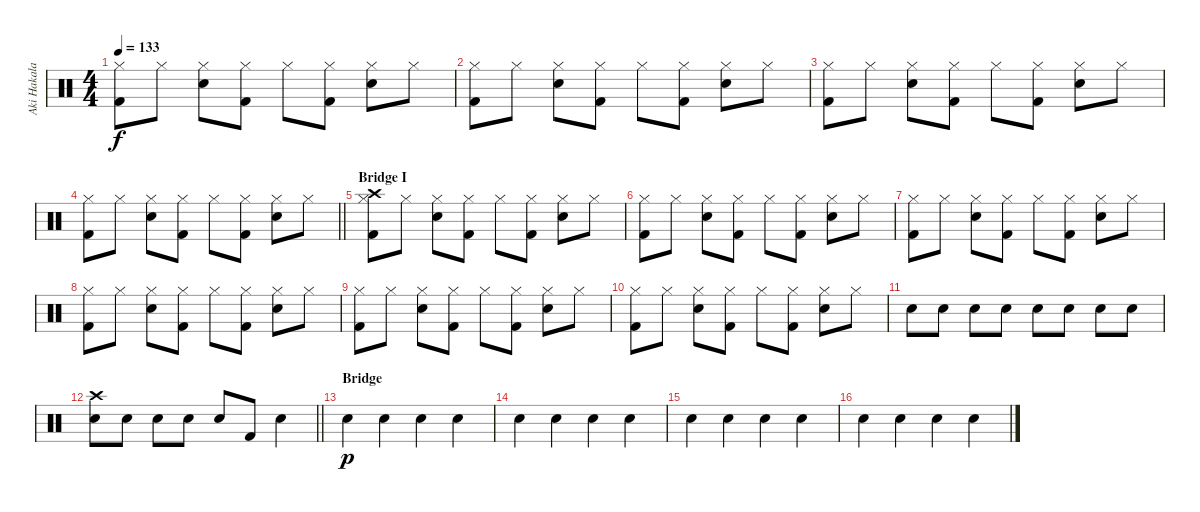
\track ("Aki Hakala - Drums" "Aki Hakala") {instrument percussion}
\staff {score}
\articulation defaults
\ts (4 4)
\tempo 133
\clef neutral
\ks c
("Hi-Hat (closed)" "Kick (hit) 2").8{dy f} "Hi-Hat (closed)".8 ("Snare (hit) 2" "Hi-Hat (closed)").8 ("Hi-Hat (closed)" "Kick (hit) 2").8 "Hi-Hat (closed)".8 ("Hi-Hat (closed)" "Kick (hit) 2").8 ("Snare (hit) 2" "Hi-Hat (closed)").8 "Hi-Hat (closed)".8 |
("Hi-Hat (closed)" "Kick (hit) 2").8 "Hi-Hat (closed)".8 ("Snare (hit) 2" "Hi-Hat (closed)").8 ("Hi-Hat (closed)" "Kick (hit) 2").8 "Hi-Hat (closed)".8 ("Hi-Hat (closed)" "Kick (hit) 2").8 ("Snare (hit) 2" "Hi-Hat (closed)").8 "Hi-Hat (closed)".8 |
("Hi-Hat (closed)" "Kick (hit) 2").8 "Hi-Hat (closed)".8 ("Snare (hit) 2" "Hi-Hat (closed)").8 ("Hi-Hat (closed)" "Kick (hit) 2").8 "Hi-Hat (closed)".8 ("Hi-Hat (closed)" "Kick (hit) 2").8 ("Snare (hit) 2" "Hi-Hat (closed)").8 "Hi-Hat (closed)".8 |
\barLineRight lightlight
("Hi-Hat (closed)" "Kick (hit) 2").8 "Hi-Hat (closed)".8 ("Snare (hit) 2" "Hi-Hat (closed)").8 ("Hi-Hat (closed)" "Kick (hit) 2").8 "Hi-Hat (closed)".8 ("Hi-Hat (closed)" "Kick (hit) 2").8 ("Snare (hit) 2" "Hi-Hat (closed)").8 "Hi-Hat (closed)".8 |
\section ("" "Bridge I")
("Crash high (hit)" "Hi-Hat (closed)" "Kick (hit) 2").8 "Hi-Hat (closed)".8 ("Snare (hit) 2" "Hi-Hat (closed)").8 ("Hi-Hat (closed)" "Kick (hit) 2").8 "Hi-Hat (closed)".8 ("Hi-Hat (closed)" "Kick (hit) 2").8 ("Snare (hit) 2" "Hi-Hat (closed)").8 "Hi-Hat (closed)".8 |
("Hi-Hat (closed)" "Kick (hit) 2").8 "Hi-Hat (closed)".8 ("Snare (hit) 2" "Hi-Hat (closed)").8 ("Hi-Hat (closed)" "Kick (hit) 2").8 "Hi-Hat (closed)".8 ("Hi-Hat (closed)" "Kick (hit) 2").8 ("Snare (hit) 2" "Hi-Hat (closed)").8 "Hi-Hat (closed)".8 |
("Hi-Hat (closed)" "Kick (hit) 2").8 "Hi-Hat (closed)".8 ("Snare (hit) 2" "Hi-Hat (closed)").8 ("Hi-Hat (closed)" "Kick (hit) 2").8 "Hi-Hat (closed)".8 ("Hi-Hat (closed)" "Kick (hit) 2").8 ("Snare (hit) 2" "Hi-Hat (closed)").8 "Hi-Hat (closed)".8 |
("Hi-Hat (closed)" "Kick (hit) 2").8 "Hi-Hat (closed)".8 ("Snare (hit) 2" "Hi-Hat (closed)").8 ("Hi-Hat (closed)" "Kick (hit) 2").8 "Hi-Hat (closed)".8 ("Hi-Hat (closed)" "Kick (hit) 2").8 ("Snare (hit) 2" "Hi-Hat (closed)").8 "Hi-Hat (closed)".8 |
("Hi-Hat (closed)" "Kick (hit) 2").8 "Hi-Hat (closed)".8 ("Snare (hit) 2" "Hi-Hat (closed)").8 ("Hi-Hat (closed)" "Kick (hit) 2").8 "Hi-Hat (closed)".8 ("Hi-Hat (closed)" "Kick (hit) 2").8 ("Snare (hit) 2" "Hi-Hat (closed)").8 "Hi-Hat (closed)".8 |
("Hi-Hat (closed)" "Kick (hit) 2").8 "Hi-Hat (closed)".8 ("Snare (hit) 2" "Hi-Hat (closed)").8 ("Hi-Hat (closed)" "Kick (hit) 2").8 "Hi-Hat (closed)".8 ("Hi-Hat (closed)" "Kick (hit) 2").8 ("Snare (hit) 2" "Hi-Hat (closed)").8 "Hi-Hat (closed)".8 |
"Electric Snare (hit)".8 "Electric Snare (hit)".8 "Electric Snare (hit)".8 "Electric Snare (hit)".8 "Electric Snare (hit)".8 "Electric Snare (hit)".8 "Electric Snare (hit)".8 "Electric Snare (hit)".8 |
\barLineRight lightlight
("Crash high (hit)" "Snare (hit) 2").8 "Electric Snare (hit)".8 "Electric Snare (hit)".8 "Electric Snare (hit)".8 "Electric Snare (hit)".8 "Kick (hit) 2".8 "Snare (hit) 2".4 |
\section ("" "Bridge")
"Snare (hit) 2".4{dy p} "Snare (hit) 2".4 "Snare (hit) 2".4 "Snare (hit) 2".4 |
"Snare (hit) 2".4 "Snare (hit) 2".4 "Snare (hit) 2".4 "Snare (hit) 2".4 |
"Snare (hit) 2".4 "Snare (hit) 2".4 "Snare (hit) 2".4 "Snare (hit) 2".4 |
"Snare (hit) 2".4 "Snare (hit) 2".4 "Snare (hit) 2".4 "Snare (hit) 2".4
